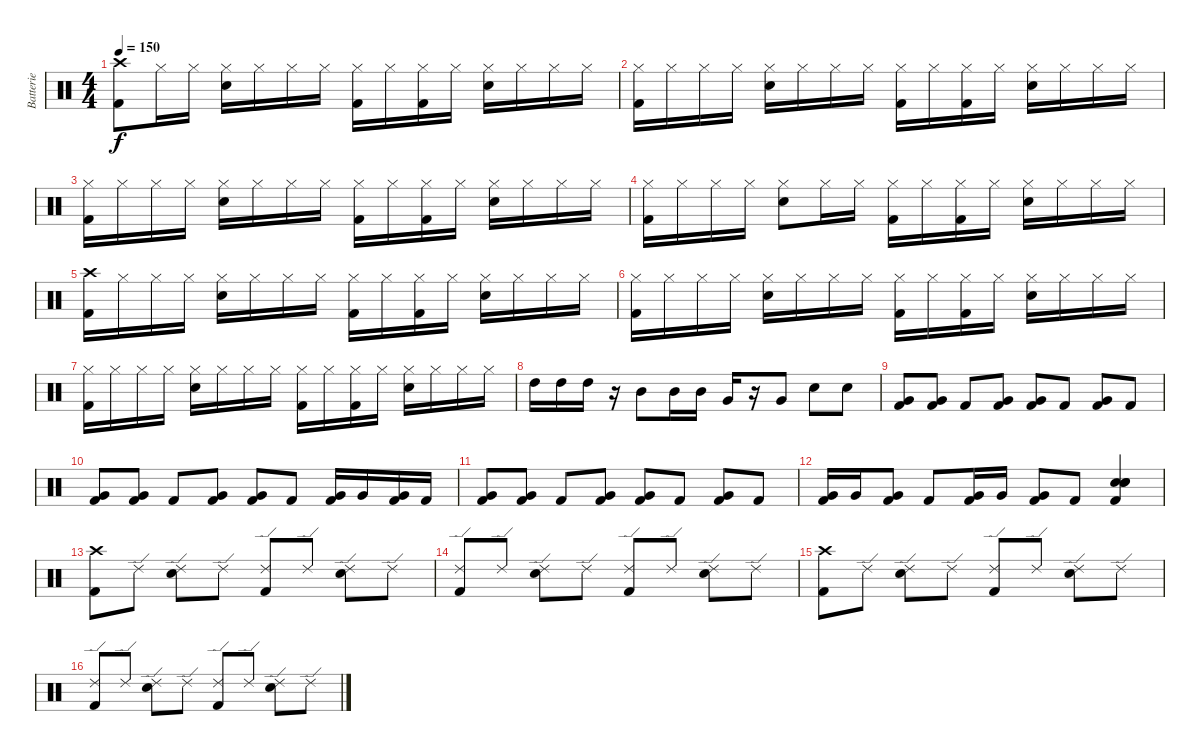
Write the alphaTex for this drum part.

\track ("Batterie" "Batterie") {instrument percussion}
\staff {score}
\articulation defaults
\ts (4 4)
\tempo 150
\clef neutral
\ks c
("Crash high (hit)" "Kick (hit) 2").8{dy f} "Hi-Hat (closed)".16 "Hi-Hat (closed)".16 ("Hi-Hat (closed)" "Snare (hit) 2").16 "Hi-Hat (closed)".16 "Hi-Hat (closed)".16 "Hi-Hat (closed)".16 ("Hi-Hat (closed)" "Kick (hit) 2").16 "Hi-Hat (closed)".16 ("Hi-Hat (closed)" "Kick (hit) 2").16 "Hi-Hat (closed)".16 ("Hi-Hat (closed)" "Snare (hit) 2").16 "Hi-Hat (closed)".16 "Hi-Hat (closed)".16 "Hi-Hat (closed)".16 |
("Hi-Hat (closed)" "Kick (hit) 2").16 "Hi-Hat (closed)".16 "Hi-Hat (closed)".16 "Hi-Hat (closed)".16 ("Hi-Hat (closed)" "Snare (hit) 2").16 "Hi-Hat (closed)".16 "Hi-Hat (closed)".16 "Hi-Hat (closed)".16 ("Hi-Hat (closed)" "Kick (hit) 2").16 "Hi-Hat (closed)".16 ("Hi-Hat (closed)" "Kick (hit) 2").16 "Hi-Hat (closed)".16 ("Hi-Hat (closed)" "Snare (hit) 2").16 "Hi-Hat (closed)".16 "Hi-Hat (closed)".16 "Hi-Hat (closed)".16 |
("Hi-Hat (closed)" "Kick (hit) 2").16 "Hi-Hat (closed)".16 "Hi-Hat (closed)".16 "Hi-Hat (closed)".16 ("Hi-Hat (closed)" "Snare (hit) 2").16 "Hi-Hat (closed)".16 "Hi-Hat (closed)".16 "Hi-Hat (closed)".16 ("Hi-Hat (closed)" "Kick (hit) 2").16 "Hi-Hat (closed)".16 ("Hi-Hat (closed)" "Kick (hit) 2").16 "Hi-Hat (closed)".16 ("Hi-Hat (closed)" "Snare (hit) 2").16 "Hi-Hat (closed)".16 "Hi-Hat (closed)".16 "Hi-Hat (closed)".16 |
("Hi-Hat (closed)" "Kick (hit) 2").16 "Hi-Hat (closed)".16 "Hi-Hat (closed)".16 "Hi-Hat (closed)".16 ("Hi-Hat (closed)" "Snare (hit) 2").8 "Hi-Hat (closed)".16 "Hi-Hat (closed)".16 ("Hi-Hat (closed)" "Kick (hit) 2").16 "Hi-Hat (closed)".16 ("Hi-Hat (closed)" "Kick (hit) 2").16 "Hi-Hat (closed)".16 ("Hi-Hat (closed)" "Snare (hit) 2").16 "Hi-Hat (closed)".16 "Hi-Hat (closed)".16 "Hi-Hat (closed)".16 |
("Crash high (hit)" "Kick (hit) 2").16 "Hi-Hat (closed)".16 "Hi-Hat (closed)".16 "Hi-Hat (closed)".16 ("Hi-Hat (closed)" "Snare (hit) 2").16 "Hi-Hat (closed)".16 "Hi-Hat (closed)".16 "Hi-Hat (closed)".16 ("Hi-Hat (closed)" "Kick (hit) 2").16 "Hi-Hat (closed)".16 ("Hi-Hat (closed)" "Kick (hit) 2").16 "Hi-Hat (closed)".16 ("Hi-Hat (closed)" "Snare (hit) 2").16 "Hi-Hat (closed)".16 "Hi-Hat (closed)".16 "Hi-Hat (closed)".16 |
("Hi-Hat (closed)" "Kick (hit) 2").16 "Hi-Hat (closed)".16 "Hi-Hat (closed)".16 "Hi-Hat (closed)".16 ("Hi-Hat (closed)" "Snare (hit) 2").16 "Hi-Hat (closed)".16 "Hi-Hat (closed)".16 "Hi-Hat (closed)".16 ("Hi-Hat (closed)" "Kick (hit) 2").16 "Hi-Hat (closed)".16 ("Hi-Hat (closed)" "Kick (hit) 2").16 "Hi-Hat (closed)".16 ("Hi-Hat (closed)" "Snare (hit) 2").16 "Hi-Hat (closed)".16 "Hi-Hat (closed)".16 "Hi-Hat (closed)".16 |
("Hi-Hat (closed)" "Kick (hit) 2").16 "Hi-Hat (closed)".16 "Hi-Hat (closed)".16 "Hi-Hat (closed)".16 ("Hi-Hat (closed)" "Snare (hit) 2").16 "Hi-Hat (closed)".16 "Hi-Hat (closed)".16 "Hi-Hat (closed)".16 ("Hi-Hat (closed)" "Kick (hit) 2").16 "Hi-Hat (closed)".16 ("Hi-Hat (closed)" "Kick (hit) 2").16 "Hi-Hat (closed)".16 ("Hi-Hat (closed)" "Snare (hit) 2").16 "Hi-Hat (closed)".16 "Hi-Hat (closed)".16 "Hi-Hat (closed)".16 |
"High Tom (hit)".16 "High Tom (hit)".16 "High Tom (hit)".16 r.16 "Mid Tom (hit)".8 "Mid Tom (hit)".16 "Mid Tom (hit)".16 "Very Low Tom (hit)".16 r.16 "Very Low Tom (hit)".8 "Snare (hit) 2".8 "Snare (hit) 2".8 |
("Very Low Tom (hit)" "Kick (hit) 2").8 ("Very Low Tom (hit)" "Kick (hit) 2").8 "Kick (hit) 2".8 ("Very Low Tom (hit)" "Kick (hit) 2").8 ("Very Low Tom (hit)" "Kick (hit) 2").8 "Kick (hit) 2".8 ("Very Low Tom (hit)" "Kick (hit) 2").8 "Kick (hit) 2".8 |
("Very Low Tom (hit)" "Kick (hit) 2").8 ("Very Low Tom (hit)" "Kick (hit) 2").8 "Kick (hit) 2".8 ("Very Low Tom (hit)" "Kick (hit) 2").8 ("Very Low Tom (hit)" "Kick (hit) 2").8 "Kick (hit) 2".8 ("Very Low Tom (hit)" "Kick (hit) 2").16 "Very Low Tom (hit)".16 ("Very Low Tom (hit)" "Kick (hit) 2").16 "Kick (hit) 2".16 |
("Very Low Tom (hit)" "Kick (hit) 2").8 ("Very Low Tom (hit)" "Kick (hit) 2").8 "Kick (hit) 2".8 ("Very Low Tom (hit)" "Kick (hit) 2").8 ("Very Low Tom (hit)" "Kick (hit) 2").8 "Kick (hit) 2".8 ("Very Low Tom (hit)" "Kick (hit) 2").8 "Kick (hit) 2".8 |
("Very Low Tom (hit)" "Kick (hit) 2").16 "Very Low Tom (hit)".16 ("Very Low Tom (hit)" "Kick (hit) 2").8 "Kick (hit) 2".8 ("Very Low Tom (hit)" "Kick (hit) 2").16 "Very Low Tom (hit)".16 ("Very Low Tom (hit)" "Kick (hit) 2").8 "Kick (hit) 2".8 ("Snare (hit) 2" "Snare (hit) 2" "Snare (hit) 2" "Kick (hit) 2").4 |
("Crash high (hit)" "Kick (hit) 2").8 "Ride (edge) 2".8 ("Ride (edge) 2" "Snare (hit) 2").8 "Ride (edge) 2".8 ("Ride (edge) 2" "Kick (hit) 2").8 "Ride (edge) 2".8 ("Ride (edge) 2" "Snare (hit) 2").8 "Ride (edge) 2".8 |
("Ride (edge) 2" "Kick (hit) 2").8 "Ride (edge) 2".8 ("Ride (edge) 2" "Snare (hit) 2").8 "Ride (edge) 2".8 ("Ride (edge) 2" "Kick (hit) 2").8 "Ride (edge) 2".8 ("Ride (edge) 2" "Snare (hit) 2").8 "Ride (edge) 2".8 |
("Crash high (hit)" "Kick (hit) 2").8 "Ride (edge) 2".8 ("Ride (edge) 2" "Snare (hit) 2").8 "Ride (edge) 2".8 ("Ride (edge) 2" "Kick (hit) 2").8 "Ride (edge) 2".8 ("Ride (edge) 2" "Snare (hit) 2").8 "Ride (edge) 2".8 |
("Ride (edge) 2" "Kick (hit) 2").8 "Ride (edge) 2".8 ("Ride (edge) 2" "Snare (hit) 2").8 "Ride (edge) 2".8 ("Ride (edge) 2" "Kick (hit) 2").8 "Ride (edge) 2".8 ("Ride (edge) 2" "Snare (hit) 2").8 "Ride (edge) 2".8
